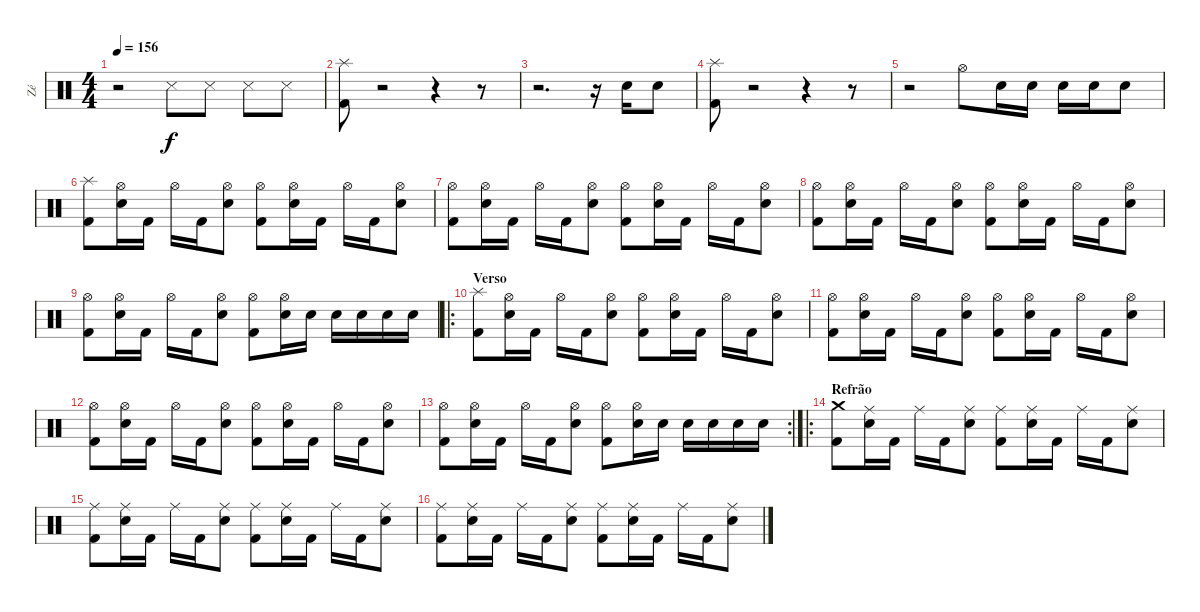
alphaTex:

\track ("Zé" "Zé") {instrument percussion}
\staff {score}
\articulation defaults
\ts (4 4)
\tempo 156
\clef neutral
\ks c
r.2{dy f} "Snare (side stick) 3".8 "Snare (side stick) 3".8 "Snare (side stick) 3".8 "Snare (side stick) 3".8 |
("Splash (hit)" "Kick (hit) 2").8 r.2 r.4 r.8 |
r.2{d} r.16 "Snare (hit) 2".16 "Snare (hit) 2".8 |
("Splash (hit)" "Kick (hit) 2").8 r.2 r.4 r.8 |
r.2 "Hi-Hat (open)".8 "Snare (hit) 2".16 "Snare (hit) 2".16 "Snare (hit) 2".16 "Snare (hit) 2".16 "Snare (hit) 2".8 |
("Splash (hit)" "Kick (hit) 2").8 ("Hi-Hat (open)" "Snare (hit) 2").16 "Kick (hit) 2".16 "Hi-Hat (open)".16 "Kick (hit) 2".16 ("Hi-Hat (open)" "Snare (hit) 2").8 ("Hi-Hat (open)" "Kick (hit) 2").8 ("Hi-Hat (open)" "Snare (hit) 2").16 "Kick (hit) 2".16 "Hi-Hat (open)".16 "Kick (hit) 2".16 ("Hi-Hat (open)" "Snare (hit) 2").8 |
("Hi-Hat (open)" "Kick (hit) 2").8 ("Hi-Hat (open)" "Snare (hit) 2").16 "Kick (hit) 2".16 "Hi-Hat (open)".16 "Kick (hit) 2".16 ("Hi-Hat (open)" "Snare (hit) 2").8 ("Hi-Hat (open)" "Kick (hit) 2").8 ("Hi-Hat (open)" "Snare (hit) 2").16 "Kick (hit) 2".16 "Hi-Hat (open)".16 "Kick (hit) 2".16 ("Hi-Hat (open)" "Snare (hit) 2").8 |
("Hi-Hat (open)" "Kick (hit) 2").8 ("Hi-Hat (open)" "Snare (hit) 2").16 "Kick (hit) 2".16 "Hi-Hat (open)".16 "Kick (hit) 2".16 ("Hi-Hat (open)" "Snare (hit) 2").8 ("Hi-Hat (open)" "Kick (hit) 2").8 ("Hi-Hat (open)" "Snare (hit) 2").16 "Kick (hit) 2".16 "Hi-Hat (open)".16 "Kick (hit) 2".16 ("Hi-Hat (open)" "Snare (hit) 2").8 |
("Hi-Hat (open)" "Kick (hit) 2").8 ("Hi-Hat (open)" "Snare (hit) 2").16 "Kick (hit) 2".16 "Hi-Hat (open)".16 "Kick (hit) 2".16 ("Hi-Hat (open)" "Snare (hit) 2").8 ("Hi-Hat (open)" "Kick (hit) 2").8 ("Hi-Hat (open)" "Snare (hit) 2").16 "Snare (hit) 2".16 "Snare (hit) 2".16 "Snare (hit) 2".16 "Snare (hit) 2".16 "Snare (hit) 2".16 |
\ro
\section ("" "Verso")
("Splash (hit)" "Kick (hit) 2").8 ("Hi-Hat (open)" "Snare (hit) 2").16 "Kick (hit) 2".16 "Hi-Hat (open)".16 "Kick (hit) 2".16 ("Hi-Hat (open)" "Snare (hit) 2").8 ("Hi-Hat (open)" "Kick (hit) 2").8 ("Hi-Hat (open)" "Snare (hit) 2").16 "Kick (hit) 2".16 "Hi-Hat (open)".16 "Kick (hit) 2".16 ("Hi-Hat (open)" "Snare (hit) 2").8 |
("Hi-Hat (open)" "Kick (hit) 2").8 ("Hi-Hat (open)" "Snare (hit) 2").16 "Kick (hit) 2".16 "Hi-Hat (open)".16 "Kick (hit) 2".16 ("Hi-Hat (open)" "Snare (hit) 2").8 ("Hi-Hat (open)" "Kick (hit) 2").8 ("Hi-Hat (open)" "Snare (hit) 2").16 "Kick (hit) 2".16 "Hi-Hat (open)".16 "Kick (hit) 2".16 ("Hi-Hat (open)" "Snare (hit) 2").8 |
("Hi-Hat (open)" "Kick (hit) 2").8 ("Hi-Hat (open)" "Snare (hit) 2").16 "Kick (hit) 2".16 "Hi-Hat (open)".16 "Kick (hit) 2".16 ("Hi-Hat (open)" "Snare (hit) 2").8 ("Hi-Hat (open)" "Kick (hit) 2").8 ("Hi-Hat (open)" "Snare (hit) 2").16 "Kick (hit) 2".16 "Hi-Hat (open)".16 "Kick (hit) 2".16 ("Hi-Hat (open)" "Snare (hit) 2").8 |
\rc 2
("Hi-Hat (open)" "Kick (hit) 2").8 ("Hi-Hat (open)" "Snare (hit) 2").16 "Kick (hit) 2".16 "Hi-Hat (open)".16 "Kick (hit) 2".16 ("Hi-Hat (open)" "Snare (hit) 2").8 ("Hi-Hat (open)" "Kick (hit) 2").8 ("Hi-Hat (open)" "Snare (hit) 2").16 "Snare (hit) 2".16 "Snare (hit) 2".16 "Snare (hit) 2".16 "Snare (hit) 2".16 "Snare (hit) 2".16 |
\ro
\section ("" "Refrão")
("Crash medium (hit)" "Kick (hit) 2").8 ("Ride (middle)" "Snare (hit) 2").16 "Kick (hit) 2".16 "Ride (middle)".16 "Kick (hit) 2".16 ("Ride (middle)" "Snare (hit) 2").8 ("Ride (middle)" "Kick (hit) 2").8 ("Ride (middle)" "Snare (hit) 2").16 "Kick (hit) 2".16 "Ride (middle)".16 "Kick (hit) 2".16 ("Ride (middle)" "Snare (hit) 2").8 |
("Ride (middle)" "Kick (hit) 2").8 ("Ride (middle)" "Snare (hit) 2").16 "Kick (hit) 2".16 "Ride (middle)".16 "Kick (hit) 2".16 ("Ride (middle)" "Snare (hit) 2").8 ("Ride (middle)" "Kick (hit) 2").8 ("Ride (middle)" "Snare (hit) 2").16 "Kick (hit) 2".16 "Ride (middle)".16 "Kick (hit) 2".16 ("Ride (middle)" "Snare (hit) 2").8 |
("Ride (middle)" "Kick (hit) 2").8 ("Ride (middle)" "Snare (hit) 2").16 "Kick (hit) 2".16 "Ride (middle)".16 "Kick (hit) 2".16 ("Ride (middle)" "Snare (hit) 2").8 ("Ride (middle)" "Kick (hit) 2").8 ("Ride (middle)" "Snare (hit) 2").16 "Kick (hit) 2".16 "Ride (middle)".16 "Kick (hit) 2".16 ("Ride (middle)" "Snare (hit) 2").8
